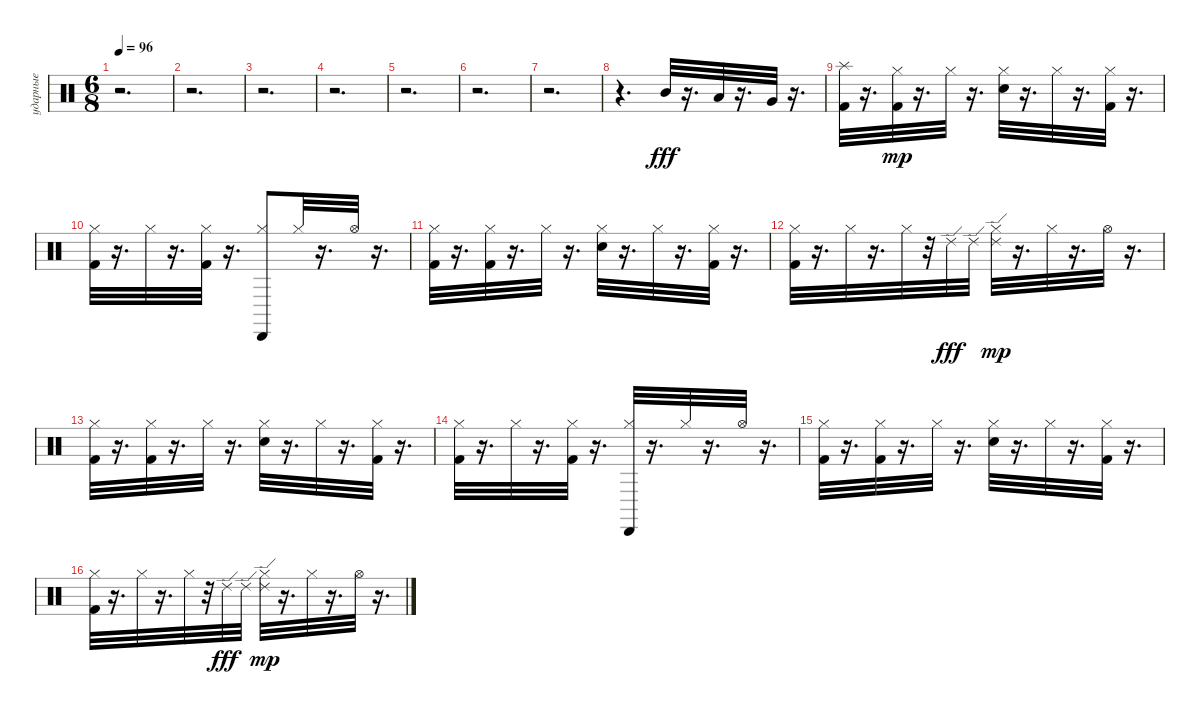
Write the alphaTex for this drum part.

\track ("ударные" "ударные") {instrument percussion}
\staff {score}
\articulation defaults
\ts (6 8)
\tempo 96
\clef neutral
\ks c
r.2{d dy fff} |
r.2{d} |
r.2{d} |
r.2{d} |
r.2{d} |
r.2{d} |
r.2{d} |
r.4{d} "Mid Tom (hit)".32{balance 12} r.16{d} "Low Tom (hit)".32{balance 8} r.16{d} "Very Low Tom (hit)".32{balance 4} r.16{d} |
("Splash (hit)" "Kick (hit) 2").32{balance 8} r.16{d} ("Kick (hit) 2" "Hi-Hat (closed)").32{dy mp} r.16{d} "Hi-Hat (closed)".32 r.16{d} ("Snare (hit) 2" "Hi-Hat (closed)").32 r.16{d} "Hi-Hat (closed)".32 r.16{d} ("Kick (hit) 2" "Hi-Hat (closed)").32 r.16{d} |
("Kick (hit) 2" "Hi-Hat (closed)").32 r.16{d} "Hi-Hat (closed)".32 r.16{d} ("Kick (hit) 2" "Hi-Hat (closed)").32 r.16{d} ("Cabasa (hit)" "Hi-Hat (closed)").8 "Hi-Hat (closed)".32 r.16{d} "Hi-Hat (open)".32 r.16{d} |
("Hi-Hat (closed)" "Kick (hit) 2").32 r.16{d} ("Kick (hit) 2" "Hi-Hat (closed)").32 r.16{d} "Hi-Hat (closed)".32 r.16{d} ("Snare (hit) 2" "Hi-Hat (closed)").32 r.16{d} "Hi-Hat (closed)".32 r.16{d} ("Kick (hit) 2" "Hi-Hat (closed)").32 r.16{d} |
("Kick (hit) 2" "Hi-Hat (closed)").32 r.16{d} "Hi-Hat (closed)".32 r.16{d} "Hi-Hat (closed)".32 r.32 "Ride (edge) 2".32{dy fff} "Ride (edge) 2".32 ("Ride (edge) 2" "Hi-Hat (closed)").32{dy mp} r.16{d} "Hi-Hat (closed)".32 r.16{d} "Hi-Hat (open)".32 r.16{d} |
("Kick (hit) 2" "Hi-Hat (closed)").32 r.16{d} ("Kick (hit) 2" "Hi-Hat (closed)").32 r.16{d} "Hi-Hat (closed)".32 r.16{d} ("Snare (hit) 2" "Hi-Hat (closed)").32 r.16{d} "Hi-Hat (closed)".32 r.16{d} ("Kick (hit) 2" "Hi-Hat (closed)").32 r.16{d} |
("Kick (hit) 2" "Hi-Hat (closed)").32 r.16{d} "Hi-Hat (closed)".32 r.16{d} ("Kick (hit) 2" "Hi-Hat (closed)").32 r.16{d} ("Cabasa (hit)" "Hi-Hat (closed)").32 r.16{d} "Hi-Hat (closed)".32 r.16{d} "Hi-Hat (open)".32 r.16{d} |
("Kick (hit) 2" "Hi-Hat (closed)").32 r.16{d} ("Kick (hit) 2" "Hi-Hat (closed)").32 r.16{d} "Hi-Hat (closed)".32 r.16{d} ("Snare (hit) 2" "Hi-Hat (closed)").32 r.16{d} "Hi-Hat (closed)".32 r.16{d} ("Kick (hit) 2" "Hi-Hat (closed)").32 r.16{d} |
("Kick (hit) 2" "Hi-Hat (closed)").32 r.16{d} "Hi-Hat (closed)".32 r.16{d} "Hi-Hat (closed)".32 r.32 "Ride (edge) 2".32{dy fff} "Ride (edge) 2".32 ("Ride (edge) 2" "Hi-Hat (closed)").32{dy mp} r.16{d} "Hi-Hat (closed)".32 r.16{d} "Hi-Hat (open)".32 r.16{d}
